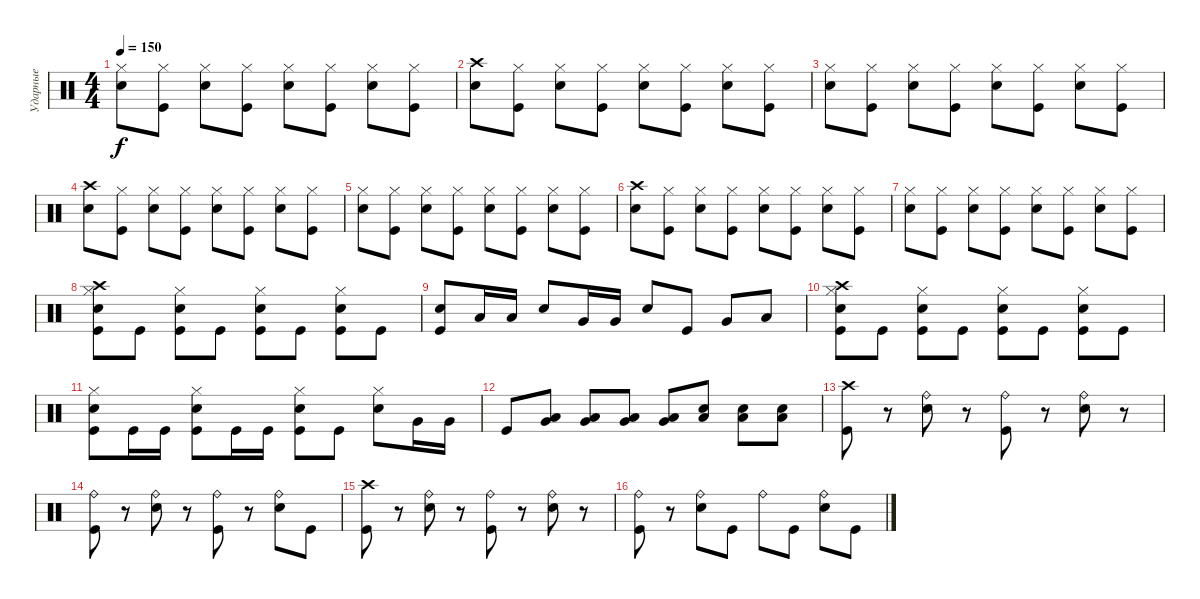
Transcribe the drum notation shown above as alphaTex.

\track ("Ударные" "Ударные") {instrument percussion}
\staff {score}
\articulation defaults
\ts (4 4)
\tempo 150
\clef neutral
\ks c
("Hi-Hat (closed)" "Electric Snare (hit)").8{dy f} ("Hi-Hat (closed)" "Kick (hit)").8 ("Hi-Hat (closed)" "Electric Snare (hit)").8 ("Hi-Hat (closed)" "Kick (hit)").8 ("Hi-Hat (closed)" "Electric Snare (hit)").8 ("Hi-Hat (closed)" "Kick (hit)").8 ("Hi-Hat (closed)" "Electric Snare (hit)").8 ("Hi-Hat (closed)" "Kick (hit)").8 |
("Crash high (hit)" "Electric Snare (hit)").8 ("Hi-Hat (closed)" "Kick (hit)").8 ("Hi-Hat (closed)" "Electric Snare (hit)").8 ("Hi-Hat (closed)" "Kick (hit)").8 ("Hi-Hat (closed)" "Electric Snare (hit)").8 ("Hi-Hat (closed)" "Kick (hit)").8 ("Hi-Hat (closed)" "Electric Snare (hit)").8 ("Hi-Hat (closed)" "Kick (hit)").8 |
("Hi-Hat (closed)" "Electric Snare (hit)").8 ("Hi-Hat (closed)" "Kick (hit)").8 ("Hi-Hat (closed)" "Electric Snare (hit)").8 ("Hi-Hat (closed)" "Kick (hit)").8 ("Hi-Hat (closed)" "Electric Snare (hit)").8 ("Hi-Hat (closed)" "Kick (hit)").8 ("Hi-Hat (closed)" "Electric Snare (hit)").8 ("Hi-Hat (closed)" "Kick (hit)").8 |
("Crash high (hit)" "Electric Snare (hit)").8 ("Hi-Hat (closed)" "Kick (hit)").8 ("Hi-Hat (closed)" "Electric Snare (hit)").8 ("Hi-Hat (closed)" "Kick (hit)").8 ("Hi-Hat (closed)" "Electric Snare (hit)").8 ("Hi-Hat (closed)" "Kick (hit)").8 ("Hi-Hat (closed)" "Electric Snare (hit)").8 ("Hi-Hat (closed)" "Kick (hit)").8 |
("Hi-Hat (closed)" "Electric Snare (hit)").8 ("Hi-Hat (closed)" "Kick (hit)").8 ("Hi-Hat (closed)" "Electric Snare (hit)").8 ("Hi-Hat (closed)" "Kick (hit)").8 ("Hi-Hat (closed)" "Electric Snare (hit)").8 ("Hi-Hat (closed)" "Kick (hit)").8 ("Hi-Hat (closed)" "Electric Snare (hit)").8 ("Hi-Hat (closed)" "Kick (hit)").8 |
("Crash high (hit)" "Electric Snare (hit)").8 ("Hi-Hat (closed)" "Kick (hit)").8 ("Hi-Hat (closed)" "Electric Snare (hit)").8 ("Hi-Hat (closed)" "Kick (hit)").8 ("Hi-Hat (closed)" "Electric Snare (hit)").8 ("Hi-Hat (closed)" "Kick (hit)").8 ("Hi-Hat (closed)" "Electric Snare (hit)").8 ("Hi-Hat (closed)" "Kick (hit)").8 |
("Hi-Hat (closed)" "Electric Snare (hit)").8 ("Hi-Hat (closed)" "Kick (hit)").8 ("Hi-Hat (closed)" "Electric Snare (hit)").8 ("Hi-Hat (closed)" "Kick (hit)").8 ("Hi-Hat (closed)" "Electric Snare (hit)").8 ("Hi-Hat (closed)" "Kick (hit)").8 ("Hi-Hat (closed)" "Electric Snare (hit)").8 ("Hi-Hat (closed)" "Kick (hit)").8 |
("Crash high (hit)" "Hi-Hat (closed)" "Electric Snare (hit)" "Kick (hit)").8 "Kick (hit)".8 ("Hi-Hat (closed)" "Electric Snare (hit)" "Kick (hit)").8 "Kick (hit)".8 ("Hi-Hat (closed)" "Electric Snare (hit)" "Kick (hit)").8 "Kick (hit)".8 ("Hi-Hat (closed)" "Electric Snare (hit)" "Kick (hit)").8 "Kick (hit)".8 |
("Electric Snare (hit)" "Kick (hit)").8 "Low Tom (hit)".16 "Low Tom (hit)".16 "Electric Snare (hit)".8 "Very Low Tom (hit)".16 "Very Low Tom (hit)".16 "Electric Snare (hit)".8 "Kick (hit)".8 "Very Low Tom (hit)".8 "Low Tom (hit)".8 |
("Crash high (hit)" "Hi-Hat (closed)" "Electric Snare (hit)" "Kick (hit)").8 "Kick (hit)".8 ("Hi-Hat (closed)" "Electric Snare (hit)" "Kick (hit)").8 "Kick (hit)".8 ("Hi-Hat (closed)" "Electric Snare (hit)" "Kick (hit)").8 "Kick (hit)".8 ("Hi-Hat (closed)" "Electric Snare (hit)" "Kick (hit)").8 "Kick (hit)".8 |
("Hi-Hat (closed)" "Electric Snare (hit)" "Kick (hit)").8 "Kick (hit)".16 "Kick (hit)".16 ("Hi-Hat (closed)" "Electric Snare (hit)" "Kick (hit)").8 "Kick (hit)".16 "Kick (hit)".16 ("Hi-Hat (closed)" "Electric Snare (hit)" "Kick (hit)").8 "Kick (hit)".8 ("Hi-Hat (closed)" "Electric Snare (hit)").8 "Very Low Tom (hit)".16 "Very Low Tom (hit)".16 |
"Kick (hit)".8 ("Very Low Tom (hit)" "Low Tom (hit)").8 ("Very Low Tom (hit)" "Low Tom (hit)").8 ("Very Low Tom (hit)" "Low Tom (hit)").8 ("Very Low Tom (hit)" "Low Tom (hit)").8 ("Electric Snare (hit)" "Low Tom (hit)").8 ("Electric Snare (hit)" "Low Tom (hit)").8 ("Electric Snare (hit)" "Low Tom (hit)").8 |
("Crash high (hit)" "Kick (hit)").8 r.8 ("Ride (bell)" "Electric Snare (hit)").8 r.8 ("Ride (bell)" "Kick (hit)").8 r.8 ("Ride (bell)" "Electric Snare (hit)").8 r.8 |
("Ride (bell)" "Kick (hit)").8 r.8 ("Ride (bell)" "Electric Snare (hit)").8 r.8 ("Ride (bell)" "Kick (hit)").8 r.8 ("Ride (bell)" "Electric Snare (hit)").8 "Kick (hit)".8 |
("Crash high (hit)" "Kick (hit)").8 r.8 ("Ride (bell)" "Electric Snare (hit)").8 r.8 ("Ride (bell)" "Kick (hit)").8 r.8 ("Ride (bell)" "Electric Snare (hit)").8 r.8 |
("Ride (bell)" "Kick (hit)").8 r.8 ("Ride (bell)" "Electric Snare (hit)").8 "Kick (hit)".8 "Ride (bell)".8 "Kick (hit)".8 ("Ride (bell)" "Electric Snare (hit)").8 "Kick (hit)".8
